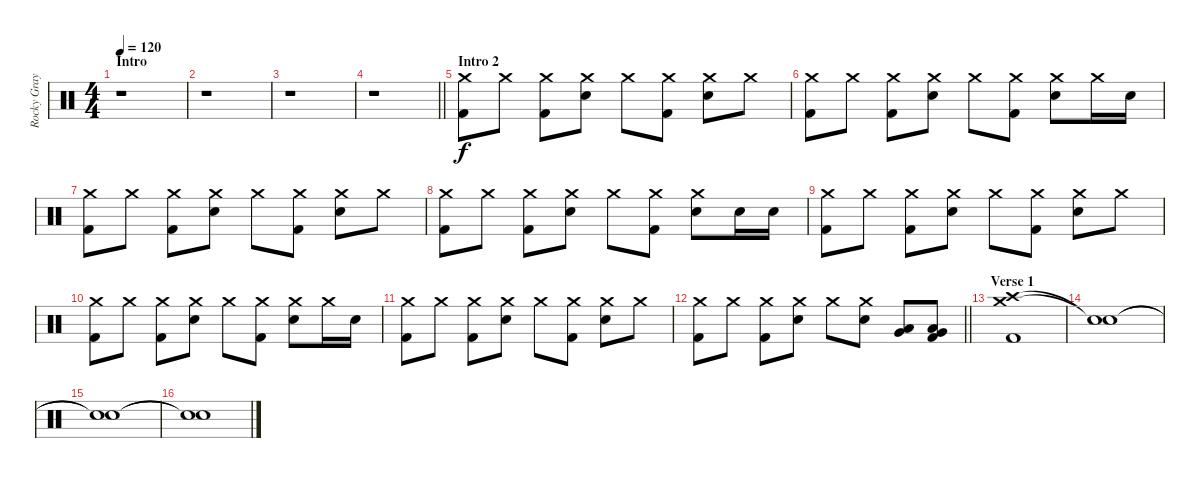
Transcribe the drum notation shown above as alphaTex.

\track ("Rocky Gray" "Rocky Gray") {instrument percussion}
\staff {score}
\articulation defaults
\ts (4 4)
\section ("" "Intro")
\tempo 120
\clef neutral
\ks c
r.1{dy f} |
r.1 |
r.1 |
\barLineRight lightlight
r.1 |
\section ("" "Intro 2")
("Crash medium (hit)" "Kick (hit) 2").8 "Crash medium (hit)".8 ("Crash medium (hit)" "Kick (hit) 2").8 ("Crash medium (hit)" "Electric Snare (hit)").8 "Crash medium (hit)".8 ("Crash medium (hit)" "Kick (hit) 2").8 ("Crash medium (hit)" "Electric Snare (hit)").8 "Crash medium (hit)".8 |
("Crash medium (hit)" "Kick (hit) 2").8 "Crash medium (hit)".8 ("Crash medium (hit)" "Kick (hit) 2").8 ("Crash medium (hit)" "Electric Snare (hit)").8 "Crash medium (hit)".8 ("Crash medium (hit)" "Kick (hit) 2").8 ("Crash medium (hit)" "Electric Snare (hit)").8 "Crash medium (hit)".16 "Electric Snare (hit)".16 |
("Crash medium (hit)" "Kick (hit) 2").8 "Crash medium (hit)".8 ("Crash medium (hit)" "Kick (hit) 2").8 ("Crash medium (hit)" "Electric Snare (hit)").8 "Crash medium (hit)".8 ("Crash medium (hit)" "Kick (hit) 2").8 ("Crash medium (hit)" "Electric Snare (hit)").8 "Crash medium (hit)".8 |
("Crash medium (hit)" "Kick (hit) 2").8 "Crash medium (hit)".8 ("Crash medium (hit)" "Kick (hit) 2").8 ("Crash medium (hit)" "Electric Snare (hit)").8 "Crash medium (hit)".8 ("Crash medium (hit)" "Kick (hit) 2").8 ("Crash medium (hit)" "Electric Snare (hit)").8 "Electric Snare (hit)".16 "Electric Snare (hit)".16 |
("Crash medium (hit)" "Kick (hit) 2").8 "Crash medium (hit)".8 ("Crash medium (hit)" "Kick (hit) 2").8 ("Crash medium (hit)" "Electric Snare (hit)").8 "Crash medium (hit)".8 ("Crash medium (hit)" "Kick (hit) 2").8 ("Crash medium (hit)" "Electric Snare (hit)").8 "Crash medium (hit)".8 |
("Crash medium (hit)" "Kick (hit) 2").8 "Crash medium (hit)".8 ("Crash medium (hit)" "Kick (hit) 2").8 ("Crash medium (hit)" "Electric Snare (hit)").8 "Crash medium (hit)".8 ("Crash medium (hit)" "Kick (hit) 2").8 ("Crash medium (hit)" "Electric Snare (hit)").8 "Crash medium (hit)".16 "Electric Snare (hit)".16 |
("Crash medium (hit)" "Kick (hit) 2").8 "Crash medium (hit)".8 ("Crash medium (hit)" "Kick (hit) 2").8 ("Crash medium (hit)" "Electric Snare (hit)").8 "Crash medium (hit)".8 ("Crash medium (hit)" "Kick (hit) 2").8 ("Crash medium (hit)" "Electric Snare (hit)").8 "Crash medium (hit)".8 |
\barLineRight lightlight
("Crash medium (hit)" "Kick (hit) 2").8 "Crash medium (hit)".8 ("Crash medium (hit)" "Kick (hit) 2").8 ("Crash medium (hit)" "Electric Snare (hit)").8 "Crash medium (hit)".8 ("Crash medium (hit)" "Electric Snare (hit)").8 ("Very Low Tom (hit)" "Low Tom (hit)").8 ("Low Floor Tom (hit)" "Very Low Tom (hit)" "Kick (hit) 2").8 |
\section ("" "Verse 1")
("Crash high (hit)" "Crash medium (hit)" "Kick (hit) 2").1 |
("Snare (hit)"{t} "Snare (hit)"{t}).1 |
("Snare (hit)"{t} "Snare (hit)"{t}).1 |
("Snare (hit)"{t} "Snare (hit)"{t}).1
